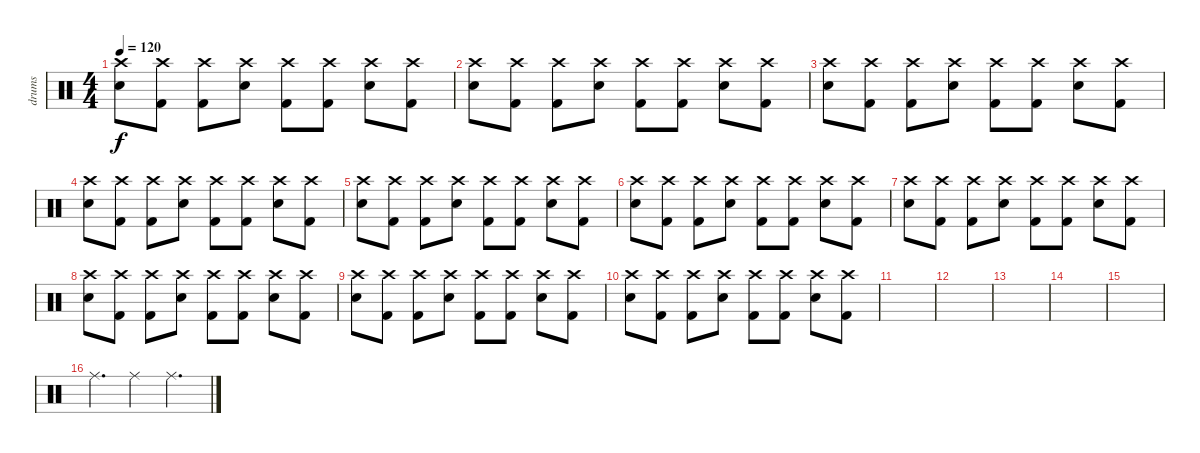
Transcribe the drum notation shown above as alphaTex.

\track ("drums" "drums") {instrument percussion}
\staff {score}
\articulation defaults
\ts (4 4)
\tempo 120
\clef neutral
\ks c
("Snare (hit) 2" "Crash high (hit)").8{dy f} ("Kick (hit) 2" "Crash high (hit)").8 ("Crash high (hit)" "Kick (hit) 2").8 ("Snare (hit) 2" "Crash high (hit)").8 ("Kick (hit) 2" "Crash high (hit)").8 ("Kick (hit) 2" "Crash high (hit)").8 ("Snare (hit) 2" "Crash high (hit)").8 ("Crash high (hit)" "Kick (hit) 2").8 |
("Snare (hit) 2" "Crash high (hit)").8 ("Kick (hit) 2" "Crash high (hit)").8 ("Crash high (hit)" "Kick (hit) 2").8 ("Snare (hit) 2" "Crash high (hit)").8 ("Kick (hit) 2" "Crash high (hit)").8 ("Kick (hit) 2" "Crash high (hit)").8 ("Snare (hit) 2" "Crash high (hit)").8 ("Crash high (hit)" "Kick (hit) 2").8 |
("Snare (hit) 2" "Crash high (hit)").8 ("Kick (hit) 2" "Crash high (hit)").8 ("Crash high (hit)" "Kick (hit) 2").8 ("Snare (hit) 2" "Crash high (hit)").8 ("Kick (hit) 2" "Crash high (hit)").8 ("Kick (hit) 2" "Crash high (hit)").8 ("Snare (hit) 2" "Crash high (hit)").8 ("Crash high (hit)" "Kick (hit) 2").8 |
("Snare (hit) 2" "Crash high (hit)").8 ("Kick (hit) 2" "Crash high (hit)").8 ("Crash high (hit)" "Kick (hit) 2").8 ("Snare (hit) 2" "Crash high (hit)").8 ("Kick (hit) 2" "Crash high (hit)").8 ("Kick (hit) 2" "Crash high (hit)").8 ("Snare (hit) 2" "Crash high (hit)").8 ("Crash high (hit)" "Kick (hit) 2").8 |
("Snare (hit) 2" "Crash high (hit)").8 ("Kick (hit) 2" "Crash high (hit)").8 ("Crash high (hit)" "Kick (hit) 2").8 ("Snare (hit) 2" "Crash high (hit)").8 ("Kick (hit) 2" "Crash high (hit)").8 ("Kick (hit) 2" "Crash high (hit)").8 ("Snare (hit) 2" "Crash high (hit)").8 ("Crash high (hit)" "Kick (hit) 2").8 |
("Snare (hit) 2" "Crash high (hit)").8 ("Kick (hit) 2" "Crash high (hit)").8 ("Crash high (hit)" "Kick (hit) 2").8 ("Snare (hit) 2" "Crash high (hit)").8 ("Kick (hit) 2" "Crash high (hit)").8 ("Kick (hit) 2" "Crash high (hit)").8 ("Snare (hit) 2" "Crash high (hit)").8 ("Crash high (hit)" "Kick (hit) 2").8 |
("Snare (hit) 2" "Crash high (hit)").8 ("Kick (hit) 2" "Crash high (hit)").8 ("Crash high (hit)" "Kick (hit) 2").8 ("Snare (hit) 2" "Crash high (hit)").8 ("Kick (hit) 2" "Crash high (hit)").8 ("Kick (hit) 2" "Crash high (hit)").8 ("Snare (hit) 2" "Crash high (hit)").8 ("Crash high (hit)" "Kick (hit) 2").8 |
("Snare (hit) 2" "Crash high (hit)").8 ("Kick (hit) 2" "Crash high (hit)").8 ("Crash high (hit)" "Kick (hit) 2").8 ("Snare (hit) 2" "Crash high (hit)").8 ("Kick (hit) 2" "Crash high (hit)").8 ("Kick (hit) 2" "Crash high (hit)").8 ("Snare (hit) 2" "Crash high (hit)").8 ("Crash high (hit)" "Kick (hit) 2").8 |
("Snare (hit) 2" "Crash high (hit)").8 ("Kick (hit) 2" "Crash high (hit)").8 ("Crash high (hit)" "Kick (hit) 2").8 ("Snare (hit) 2" "Crash high (hit)").8 ("Kick (hit) 2" "Crash high (hit)").8 ("Kick (hit) 2" "Crash high (hit)").8 ("Snare (hit) 2" "Crash high (hit)").8 ("Crash high (hit)" "Kick (hit) 2").8 |
("Snare (hit) 2" "Crash high (hit)").8 ("Kick (hit) 2" "Crash high (hit)").8 ("Crash high (hit)" "Kick (hit) 2").8 ("Snare (hit) 2" "Crash high (hit)").8 ("Kick (hit) 2" "Crash high (hit)").8 ("Kick (hit) 2" "Crash high (hit)").8 ("Snare (hit) 2" "Crash high (hit)").8 ("Crash high (hit)" "Kick (hit) 2").8 |
|
|
|
|
|
"Ride (middle)".4{d volume 16} "Ride (middle)".4 "Ride (middle)".4{d}
